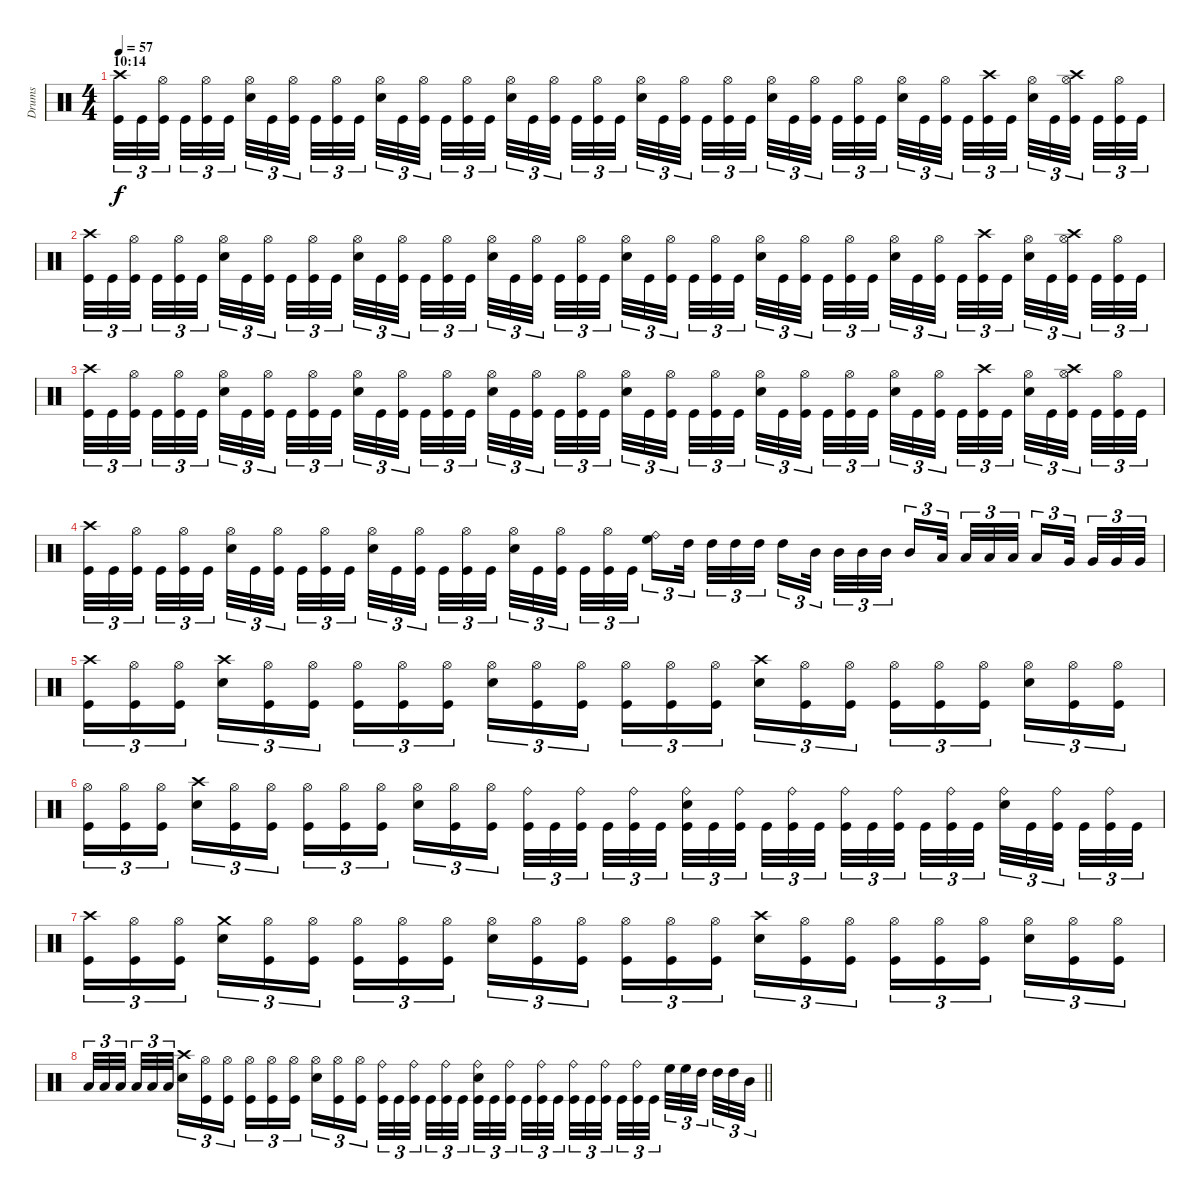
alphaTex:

\track ("Drums" "Drums") {instrument percussion}
\staff {score}
\articulation defaults
\ts (4 4)
\section ("" "10:14")
\tempo 57
\clef neutral
\ks c
("Kick (hit)" "Crash high (hit)").32{tu (3 2) dy f} "Kick (hit)".32{tu (3 2)} ("Kick (hit)" "Hi-Hat (open)").32{tu (3 2) beam splitsecondary} "Kick (hit)".32{tu (3 2)} ("Kick (hit)" "Hi-Hat (open)").32{tu (3 2)} "Kick (hit)".32{tu (3 2) beam splitsecondary} ("Snare (hit) 2" "Hi-Hat (open)").32{tu (3 2)} "Kick (hit)".32{tu (3 2)} ("Kick (hit)" "Hi-Hat (open)").32{tu (3 2) beam splitsecondary} "Kick (hit)".32{tu (3 2)} ("Kick (hit)" "Hi-Hat (open)").32{tu (3 2)} "Kick (hit)".32{tu (3 2)} ("Hi-Hat (open)" "Snare (hit) 2").32{tu (3 2)} "Kick (hit)".32{tu (3 2)} ("Kick (hit)" "Hi-Hat (open)").32{tu (3 2) beam splitsecondary} "Kick (hit)".32{tu (3 2)} ("Kick (hit)" "Hi-Hat (open)").32{tu (3 2)} "Kick (hit)".32{tu (3 2) beam splitsecondary} ("Snare (hit) 2" "Hi-Hat (open)").32{tu (3 2)} "Kick (hit)".32{tu (3 2)} ("Kick (hit)" "Hi-Hat (open)").32{tu (3 2) beam splitsecondary} "Kick (hit)".32{tu (3 2)} ("Kick (hit)" "Hi-Hat (open)").32{tu (3 2)} "Kick (hit)".32{tu (3 2)} ("Snare (hit) 2" "Hi-Hat (open)").32{tu (3 2)} "Kick (hit)".32{tu (3 2)} ("Kick (hit)" "Hi-Hat (open)").32{tu (3 2) beam splitsecondary} "Kick (hit)".32{tu (3 2)} ("Kick (hit)" "Hi-Hat (open)").32{tu (3 2)} "Kick (hit)".32{tu (3 2) beam splitsecondary} ("Snare (hit) 2" "Hi-Hat (open)").32{tu (3 2)} "Kick (hit)".32{tu (3 2)} ("Kick (hit)" "Hi-Hat (open)").32{tu (3 2) beam splitsecondary} "Kick (hit)".32{tu (3 2)} ("Kick (hit)" "Hi-Hat (open)").32{tu (3 2)} "Kick (hit)".32{tu (3 2)} ("Snare (hit) 2" "Hi-Hat (open)").32{tu (3 2)} "Kick (hit)".32{tu (3 2)} ("Kick (hit)" "Hi-Hat (open)").32{tu (3 2) beam splitsecondary} "Kick (hit)".32{tu (3 2)} ("Kick (hit)" "Crash high (hit)").32{tu (3 2)} "Kick (hit)".32{tu (3 2) beam splitsecondary} ("Snare (hit) 2" "Hi-Hat (open)").32{tu (3 2)} "Kick (hit)".32{tu (3 2)} ("Kick (hit)" "Hi-Hat (open)" "Crash high (hit)").32{tu (3 2) beam splitsecondary} "Kick (hit)".32{tu (3 2)} ("Kick (hit)" "Hi-Hat (open)").32{tu (3 2)} "Kick (hit)".32{tu (3 2)} |
("Kick (hit)" "Crash high (hit)").32{tu (3 2)} "Kick (hit)".32{tu (3 2)} ("Kick (hit)" "Hi-Hat (open)").32{tu (3 2) beam splitsecondary} "Kick (hit)".32{tu (3 2)} ("Kick (hit)" "Hi-Hat (open)").32{tu (3 2)} "Kick (hit)".32{tu (3 2) beam splitsecondary} ("Snare (hit) 2" "Hi-Hat (open)").32{tu (3 2)} "Kick (hit)".32{tu (3 2)} ("Kick (hit)" "Hi-Hat (open)").32{tu (3 2) beam splitsecondary} "Kick (hit)".32{tu (3 2)} ("Kick (hit)" "Hi-Hat (open)").32{tu (3 2)} "Kick (hit)".32{tu (3 2)} ("Hi-Hat (open)" "Snare (hit) 2").32{tu (3 2)} "Kick (hit)".32{tu (3 2)} ("Kick (hit)" "Hi-Hat (open)").32{tu (3 2) beam splitsecondary} "Kick (hit)".32{tu (3 2)} ("Kick (hit)" "Hi-Hat (open)").32{tu (3 2)} "Kick (hit)".32{tu (3 2) beam splitsecondary} ("Snare (hit) 2" "Hi-Hat (open)").32{tu (3 2)} "Kick (hit)".32{tu (3 2)} ("Kick (hit)" "Hi-Hat (open)").32{tu (3 2) beam splitsecondary} "Kick (hit)".32{tu (3 2)} ("Kick (hit)" "Hi-Hat (open)").32{tu (3 2)} "Kick (hit)".32{tu (3 2)} ("Snare (hit) 2" "Hi-Hat (open)").32{tu (3 2)} "Kick (hit)".32{tu (3 2)} ("Kick (hit)" "Hi-Hat (open)").32{tu (3 2) beam splitsecondary} "Kick (hit)".32{tu (3 2)} ("Kick (hit)" "Hi-Hat (open)").32{tu (3 2)} "Kick (hit)".32{tu (3 2) beam splitsecondary} ("Snare (hit) 2" "Hi-Hat (open)").32{tu (3 2)} "Kick (hit)".32{tu (3 2)} ("Kick (hit)" "Hi-Hat (open)").32{tu (3 2) beam splitsecondary} "Kick (hit)".32{tu (3 2)} ("Kick (hit)" "Hi-Hat (open)").32{tu (3 2)} "Kick (hit)".32{tu (3 2)} ("Snare (hit) 2" "Hi-Hat (open)").32{tu (3 2)} "Kick (hit)".32{tu (3 2)} ("Kick (hit)" "Hi-Hat (open)").32{tu (3 2) beam splitsecondary} "Kick (hit)".32{tu (3 2)} ("Kick (hit)" "Crash high (hit)").32{tu (3 2)} "Kick (hit)".32{tu (3 2) beam splitsecondary} ("Snare (hit) 2" "Hi-Hat (open)").32{tu (3 2)} "Kick (hit)".32{tu (3 2)} ("Kick (hit)" "Hi-Hat (open)" "Crash high (hit)").32{tu (3 2) beam splitsecondary} "Kick (hit)".32{tu (3 2)} ("Kick (hit)" "Hi-Hat (open)").32{tu (3 2)} "Kick (hit)".32{tu (3 2)} |
("Kick (hit)" "Crash high (hit)").32{tu (3 2)} "Kick (hit)".32{tu (3 2)} ("Kick (hit)" "Hi-Hat (open)").32{tu (3 2) beam splitsecondary} "Kick (hit)".32{tu (3 2)} ("Kick (hit)" "Hi-Hat (open)").32{tu (3 2)} "Kick (hit)".32{tu (3 2) beam splitsecondary} ("Snare (hit) 2" "Hi-Hat (open)").32{tu (3 2)} "Kick (hit)".32{tu (3 2)} ("Kick (hit)" "Hi-Hat (open)").32{tu (3 2) beam splitsecondary} "Kick (hit)".32{tu (3 2)} ("Kick (hit)" "Hi-Hat (open)").32{tu (3 2)} "Kick (hit)".32{tu (3 2)} ("Hi-Hat (open)" "Snare (hit) 2").32{tu (3 2)} "Kick (hit)".32{tu (3 2)} ("Kick (hit)" "Hi-Hat (open)").32{tu (3 2) beam splitsecondary} "Kick (hit)".32{tu (3 2)} ("Kick (hit)" "Hi-Hat (open)").32{tu (3 2)} "Kick (hit)".32{tu (3 2) beam splitsecondary} ("Snare (hit) 2" "Hi-Hat (open)").32{tu (3 2)} "Kick (hit)".32{tu (3 2)} ("Kick (hit)" "Hi-Hat (open)").32{tu (3 2) beam splitsecondary} "Kick (hit)".32{tu (3 2)} ("Kick (hit)" "Hi-Hat (open)").32{tu (3 2)} "Kick (hit)".32{tu (3 2)} ("Snare (hit) 2" "Hi-Hat (open)").32{tu (3 2)} "Kick (hit)".32{tu (3 2)} ("Kick (hit)" "Hi-Hat (open)").32{tu (3 2) beam splitsecondary} "Kick (hit)".32{tu (3 2)} ("Kick (hit)" "Hi-Hat (open)").32{tu (3 2)} "Kick (hit)".32{tu (3 2) beam splitsecondary} ("Snare (hit) 2" "Hi-Hat (open)").32{tu (3 2)} "Kick (hit)".32{tu (3 2)} ("Kick (hit)" "Hi-Hat (open)").32{tu (3 2) beam splitsecondary} "Kick (hit)".32{tu (3 2)} ("Kick (hit)" "Hi-Hat (open)").32{tu (3 2)} "Kick (hit)".32{tu (3 2)} ("Snare (hit) 2" "Hi-Hat (open)").32{tu (3 2)} "Kick (hit)".32{tu (3 2)} ("Kick (hit)" "Hi-Hat (open)").32{tu (3 2) beam splitsecondary} "Kick (hit)".32{tu (3 2)} ("Kick (hit)" "Crash high (hit)").32{tu (3 2)} "Kick (hit)".32{tu (3 2) beam splitsecondary} ("Snare (hit) 2" "Hi-Hat (open)").32{tu (3 2)} "Kick (hit)".32{tu (3 2)} ("Kick (hit)" "Hi-Hat (open)" "Crash high (hit)").32{tu (3 2) beam splitsecondary} "Kick (hit)".32{tu (3 2)} ("Kick (hit)" "Hi-Hat (open)").32{tu (3 2)} "Kick (hit)".32{tu (3 2)} |
("Kick (hit)" "Crash high (hit)").32{tu (3 2)} "Kick (hit)".32{tu (3 2)} ("Kick (hit)" "Hi-Hat (open)").32{tu (3 2) beam splitsecondary} "Kick (hit)".32{tu (3 2)} ("Kick (hit)" "Hi-Hat (open)").32{tu (3 2)} "Kick (hit)".32{tu (3 2) beam splitsecondary} ("Snare (hit) 2" "Hi-Hat (open)").32{tu (3 2)} "Kick (hit)".32{tu (3 2)} ("Kick (hit)" "Hi-Hat (open)").32{tu (3 2) beam splitsecondary} "Kick (hit)".32{tu (3 2)} ("Kick (hit)" "Hi-Hat (open)").32{tu (3 2)} "Kick (hit)".32{tu (3 2)} ("Hi-Hat (open)" "Snare (hit) 2").32{tu (3 2)} "Kick (hit)".32{tu (3 2)} ("Kick (hit)" "Hi-Hat (open)").32{tu (3 2) beam splitsecondary} "Kick (hit)".32{tu (3 2)} ("Kick (hit)" "Hi-Hat (open)").32{tu (3 2)} "Kick (hit)".32{tu (3 2) beam splitsecondary} ("Snare (hit) 2" "Hi-Hat (open)").32{tu (3 2)} "Kick (hit)".32{tu (3 2)} ("Kick (hit)" "Hi-Hat (open)").32{tu (3 2) beam splitsecondary} "Kick (hit)".32{tu (3 2)} ("Kick (hit)" "Hi-Hat (open)").32{tu (3 2)} "Kick (hit)".32{tu (3 2)} ("High Floor Tom (hit)" "Ride (bell)").16{tu (3 2)} "High Tom (hit)".32{tu (3 2) beam splitsecondary} "High Tom (hit)".32{tu (3 2)} "High Tom (hit)".32{tu (3 2)} "High Tom (hit)".32{tu (3 2) beam splitsecondary} "High Tom (hit)".16{tu (3 2)} "Mid Tom (hit)".32{tu (3 2) beam splitsecondary} "Mid Tom (hit)".32{tu (3 2)} "Mid Tom (hit)".32{tu (3 2)} "Mid Tom (hit)".32{tu (3 2)} "Mid Tom (hit)".16{tu (3 2)} "Low Tom (hit)".32{tu (3 2) beam splitsecondary} "Low Tom (hit)".32{tu (3 2)} "Low Tom (hit)".32{tu (3 2)} "Low Tom (hit)".32{tu (3 2) beam splitsecondary} "Low Tom (hit)".16{tu (3 2)} "Very Low Tom (hit)".32{tu (3 2) beam splitsecondary} "Very Low Tom (hit)".32{tu (3 2)} "Very Low Tom (hit)".32{tu (3 2)} "Very Low Tom (hit)".32{tu (3 2)} |
("Kick (hit)" "Crash high (hit)").16{tu (3 2)} ("Kick (hit)" "Hi-Hat (open)").16{tu (3 2)} ("Kick (hit)" "Hi-Hat (open)").16{tu (3 2) beam splitsecondary} ("Crash high (hit)" "Snare (hit) 2").16{tu (3 2)} ("Kick (hit)" "Hi-Hat (open)").16{tu (3 2)} ("Kick (hit)" "Hi-Hat (open)").16{tu (3 2)} ("Kick (hit)" "Hi-Hat (open)").16{tu (3 2)} ("Kick (hit)" "Hi-Hat (open)").16{tu (3 2)} ("Kick (hit)" "Hi-Hat (open)").16{tu (3 2) beam splitsecondary} ("Hi-Hat (open)" "Snare (hit) 2").16{tu (3 2)} ("Kick (hit)" "Hi-Hat (open)").16{tu (3 2)} ("Kick (hit)" "Hi-Hat (open)").16{tu (3 2)} ("Kick (hit)" "Hi-Hat (open)").16{tu (3 2)} ("Kick (hit)" "Hi-Hat (open)").16{tu (3 2)} ("Kick (hit)" "Hi-Hat (open)").16{tu (3 2) beam splitsecondary} ("Crash high (hit)" "Snare (hit) 2").16{tu (3 2)} ("Kick (hit)" "Hi-Hat (open)").16{tu (3 2)} ("Kick (hit)" "Hi-Hat (open)").16{tu (3 2)} ("Kick (hit)" "Hi-Hat (open)").16{tu (3 2)} ("Kick (hit)" "Hi-Hat (open)").16{tu (3 2)} ("Kick (hit)" "Hi-Hat (open)").16{tu (3 2) beam splitsecondary} ("Hi-Hat (open)" "Snare (hit) 2").16{tu (3 2)} ("Kick (hit)" "Hi-Hat (open)").16{tu (3 2)} ("Kick (hit)" "Hi-Hat (open)").16{tu (3 2)} |
("Kick (hit)" "Hi-Hat (open)").16{tu (3 2)} ("Kick (hit)" "Hi-Hat (open)").16{tu (3 2)} ("Kick (hit)" "Hi-Hat (open)").16{tu (3 2) beam splitsecondary} ("Crash high (hit)" "Snare (hit) 2").16{tu (3 2)} ("Kick (hit)" "Hi-Hat (open)").16{tu (3 2)} ("Kick (hit)" "Hi-Hat (open)").16{tu (3 2)} ("Kick (hit)" "Hi-Hat (open)").16{tu (3 2)} ("Kick (hit)" "Hi-Hat (open)").16{tu (3 2)} ("Kick (hit)" "Hi-Hat (open)").16{tu (3 2) beam splitsecondary} ("Hi-Hat (open)" "Snare (hit) 2").16{tu (3 2)} ("Kick (hit)" "Hi-Hat (open)").16{tu (3 2)} ("Kick (hit)" "Hi-Hat (open)").16{tu (3 2)} ("Kick (hit)" "Ride (bell)").32{tu (3 2)} "Kick (hit)".32{tu (3 2)} ("Kick (hit)" "Ride (bell)").32{tu (3 2) beam splitsecondary} "Kick (hit)".32{tu (3 2)} ("Kick (hit)" "Ride (bell)").32{tu (3 2)} "Kick (hit)".32{tu (3 2) beam splitsecondary} ("Kick (hit)" "Snare (hit) 2" "Ride (bell)").32{tu (3 2)} "Kick (hit)".32{tu (3 2)} ("Ride (bell)" "Kick (hit)").32{tu (3 2) beam splitsecondary} "Kick (hit)".32{tu (3 2)} ("Kick (hit)" "Ride (bell)").32{tu (3 2)} "Kick (hit)".32{tu (3 2)} ("Ride (bell)" "Kick (hit)").32{tu (3 2)} "Kick (hit)".32{tu (3 2)} ("Kick (hit)" "Ride (bell)").32{tu (3 2) beam splitsecondary} "Kick (hit)".32{tu (3 2)} ("Ride (bell)" "Kick (hit)").32{tu (3 2)} "Kick (hit)".32{tu (3 2) beam splitsecondary} ("Snare (hit) 2" "Ride (bell)").32{tu (3 2)} "Kick (hit)".32{tu (3 2)} ("Kick (hit)" "Ride (bell)").32{tu (3 2) beam splitsecondary} "Kick (hit)".32{tu (3 2)} ("Kick (hit)" "Ride (bell)").32{tu (3 2)} "Kick (hit)".32{tu (3 2)} |
("Kick (hit)" "Crash high (hit)").16{tu (3 2)} ("Kick (hit)" "Hi-Hat (open)").16{tu (3 2)} ("Kick (hit)" "Hi-Hat (open)").16{tu (3 2) beam splitsecondary} ("Crash medium (hit)" "Snare (hit) 2").16{tu (3 2)} ("Kick (hit)" "Hi-Hat (open)").16{tu (3 2)} ("Kick (hit)" "Hi-Hat (open)").16{tu (3 2)} ("Kick (hit)" "Hi-Hat (open)").16{tu (3 2)} ("Kick (hit)" "Hi-Hat (open)").16{tu (3 2)} ("Kick (hit)" "Hi-Hat (open)").16{tu (3 2) beam splitsecondary} ("Hi-Hat (open)" "Snare (hit) 2").16{tu (3 2)} ("Kick (hit)" "Hi-Hat (open)").16{tu (3 2)} ("Kick (hit)" "Hi-Hat (open)").16{tu (3 2)} ("Kick (hit)" "Hi-Hat (open)").16{tu (3 2)} ("Kick (hit)" "Hi-Hat (open)").16{tu (3 2)} ("Kick (hit)" "Hi-Hat (open)").16{tu (3 2) beam splitsecondary} ("Crash high (hit)" "Snare (hit) 2").16{tu (3 2)} ("Kick (hit)" "Hi-Hat (open)").16{tu (3 2)} ("Kick (hit)" "Hi-Hat (open)").16{tu (3 2)} ("Kick (hit)" "Hi-Hat (open)").16{tu (3 2)} ("Kick (hit)" "Hi-Hat (open)").16{tu (3 2)} ("Kick (hit)" "Hi-Hat (open)").16{tu (3 2) beam splitsecondary} ("Hi-Hat (open)" "Snare (hit) 2").16{tu (3 2)} ("Kick (hit)" "Hi-Hat (open)").16{tu (3 2)} ("Kick (hit)" "Hi-Hat (open)").16{tu (3 2)} |
\barLineRight lightlight "Low Tom (hit)".32{tu (3 2)} "Low Tom (hit)".32{tu (3 2)} "Low Tom (hit)".32{tu (3 2) beam splitsecondary} "Low Tom (hit)".32{tu (3 2)} "Low Tom (hit)".32{tu (3 2)} "Low Tom (hit)".32{tu (3 2) beam splitsecondary}
("Crash high (hit)" "Snare (hit) 2").16{tu (3 2)} ("Kick (hit)" "Hi-Hat (open)").16{tu (3 2)} ("Kick (hit)" "Hi-Hat (open)").16{tu (3 2)} ("Kick (hit)" "Hi-Hat (open)").16{tu (3 2)} ("Kick (hit)" "Hi-Hat (open)").16{tu (3 2)} ("Kick (hit)" "Hi-Hat (open)").16{tu (3 2) beam splitsecondary} ("Hi-Hat (open)" "Snare (hit) 2").16{tu (3 2)} ("Kick (hit)" "Hi-Hat (open)").16{tu (3 2)} ("Kick (hit)" "Hi-Hat (open)").16{tu (3 2)} ("Kick (hit)" "Ride (bell)").32{tu (3 2)} "Kick (hit)".32{tu (3 2)} ("Kick (hit)" "Ride (bell)").32{tu (3 2) beam splitsecondary} "Kick (hit)".32{tu (3 2)} ("Kick (hit)" "Ride (bell)").32{tu (3 2)} "Kick (hit)".32{tu (3 2) beam splitsecondary} ("Kick (hit)" "Snare (hit) 2" "Ride (bell)").32{tu (3 2)} "Kick (hit)".32{tu (3 2)} ("Ride (bell)" "Kick (hit)").32{tu (3 2) beam splitsecondary} "Kick (hit)".32{tu (3 2)} ("Kick (hit)" "Ride (bell)").32{tu (3 2)} "Kick (hit)".32{tu (3 2)} ("Ride (bell)" "Kick (hit)").32{tu (3 2)} "Kick (hit)".32{tu (3 2)} ("Kick (hit)" "Ride (bell)").32{tu (3 2) beam splitsecondary} "Kick (hit)".32{tu (3 2)} ("Ride (bell)" "Kick (hit)").32{tu (3 2)} "Kick (hit)".32{tu (3 2) beam splitsecondary} "High Floor Tom (hit)".32{tu (3 2)} "High Floor Tom (hit)".32{tu (3 2)} "High Tom (hit)".32{tu (3 2) beam splitsecondary} "High Tom (hit)".32{tu (3 2)} "High Tom (hit)".32{tu (3 2)} "Mid Tom (hit)".32{tu (3 2)}
